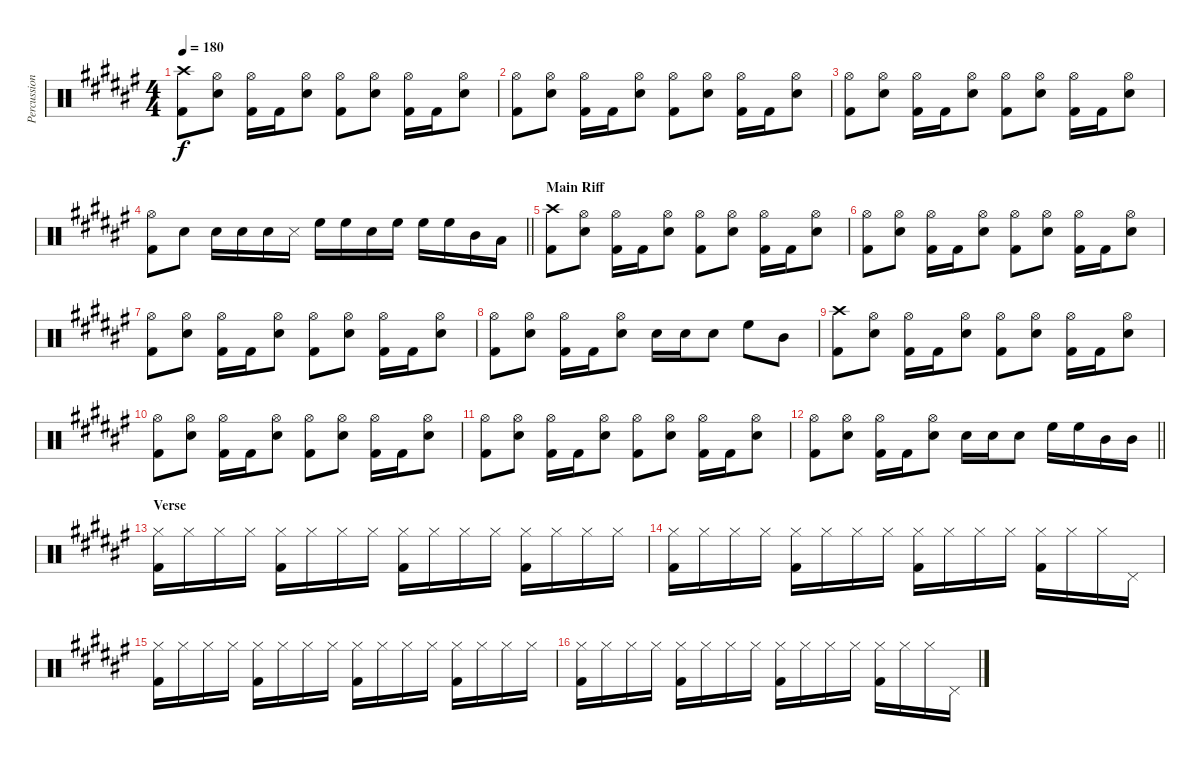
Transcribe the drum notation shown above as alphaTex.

\track ("Percussion" "Percussion") {instrument percussion}
\staff {score}
\articulation defaults
\ts (4 4)
\tempo 180
\clef neutral
\ks f#
("Crash high (hit)" "Kick (hit) 2").8{dy f} ("Hi-Hat (open)" "Snare (hit) 2").8 ("Hi-Hat (open)" "Kick (hit) 2").16 "Kick (hit) 2".16 ("Hi-Hat (open)" "Snare (hit) 2").8 ("Hi-Hat (open)" "Kick (hit) 2").8 ("Hi-Hat (open)" "Snare (hit) 2").8 ("Hi-Hat (open)" "Kick (hit) 2").16 "Kick (hit) 2".16 ("Hi-Hat (open)" "Snare (hit) 2").8 |
("Hi-Hat (open)" "Kick (hit) 2").8 ("Hi-Hat (open)" "Snare (hit) 2").8 ("Hi-Hat (open)" "Kick (hit) 2").16 "Kick (hit) 2".16 ("Hi-Hat (open)" "Snare (hit) 2").8 ("Hi-Hat (open)" "Kick (hit) 2").8 ("Hi-Hat (open)" "Snare (hit) 2").8 ("Hi-Hat (open)" "Kick (hit) 2").16 "Kick (hit) 2".16 ("Hi-Hat (open)" "Snare (hit) 2").8 |
("Hi-Hat (open)" "Kick (hit) 2").8 ("Hi-Hat (open)" "Snare (hit) 2").8 ("Hi-Hat (open)" "Kick (hit) 2").16 "Kick (hit) 2".16 ("Hi-Hat (open)" "Snare (hit) 2").8 ("Hi-Hat (open)" "Kick (hit) 2").8 ("Hi-Hat (open)" "Snare (hit) 2").8 ("Hi-Hat (open)" "Kick (hit) 2").16 "Kick (hit) 2".16 ("Hi-Hat (open)" "Snare (hit) 2").8 |
\barLineRight lightlight
("Hi-Hat (open)" "Kick (hit) 2").8 "Snare (hit) 2".8 "Snare (hit) 2".16 "Snare (hit) 2".16 "Snare (hit) 2".16 "Snare (side stick) 3".16 "High Floor Tom (hit)".16 "High Floor Tom (hit)".16 "Snare (hit) 2".16 "High Floor Tom (hit)".16 "High Floor Tom (hit)".16 "High Floor Tom (hit)".16 "Mid Tom (hit)".16 "Low Floor Tom (hit)".16 |
\section ("" "Main Riff")
("Crash high (hit)" "Kick (hit) 2").8 ("Hi-Hat (open)" "Snare (hit) 2").8 ("Hi-Hat (open)" "Kick (hit) 2").16 "Kick (hit) 2".16 ("Hi-Hat (open)" "Snare (hit) 2").8 ("Hi-Hat (open)" "Kick (hit) 2").8 ("Hi-Hat (open)" "Snare (hit) 2").8 ("Hi-Hat (open)" "Kick (hit) 2").16 "Kick (hit) 2".16 ("Hi-Hat (open)" "Snare (hit) 2").8 |
("Hi-Hat (open)" "Kick (hit) 2").8 ("Hi-Hat (open)" "Snare (hit) 2").8 ("Hi-Hat (open)" "Kick (hit) 2").16 "Kick (hit) 2".16 ("Hi-Hat (open)" "Snare (hit) 2").8 ("Hi-Hat (open)" "Kick (hit) 2").8 ("Hi-Hat (open)" "Snare (hit) 2").8 ("Hi-Hat (open)" "Kick (hit) 2").16 "Kick (hit) 2".16 ("Hi-Hat (open)" "Snare (hit) 2").8 |
("Hi-Hat (open)" "Kick (hit) 2").8 ("Hi-Hat (open)" "Snare (hit) 2").8 ("Hi-Hat (open)" "Kick (hit) 2").16 "Kick (hit) 2".16 ("Hi-Hat (open)" "Snare (hit) 2").8 ("Hi-Hat (open)" "Kick (hit) 2").8 ("Hi-Hat (open)" "Snare (hit) 2").8 ("Hi-Hat (open)" "Kick (hit) 2").16 "Kick (hit) 2".16 ("Hi-Hat (open)" "Snare (hit) 2").8 |
("Hi-Hat (open)" "Kick (hit) 2").8 ("Hi-Hat (open)" "Snare (hit) 2").8 ("Hi-Hat (open)" "Kick (hit) 2").16 "Kick (hit) 2".16 ("Hi-Hat (open)" "Snare (hit) 2").8 "Snare (hit) 2".16 "Snare (hit) 2".16 "Snare (hit) 2".8 "High Floor Tom (hit)".8 "Mid Tom (hit)".8 |
("Crash high (hit)" "Kick (hit) 2").8 ("Hi-Hat (open)" "Snare (hit) 2").8 ("Hi-Hat (open)" "Kick (hit) 2").16 "Kick (hit) 2".16 ("Hi-Hat (open)" "Snare (hit) 2").8 ("Hi-Hat (open)" "Kick (hit) 2").8 ("Hi-Hat (open)" "Snare (hit) 2").8 ("Hi-Hat (open)" "Kick (hit) 2").16 "Kick (hit) 2".16 ("Hi-Hat (open)" "Snare (hit) 2").8 |
("Hi-Hat (open)" "Kick (hit) 2").8 ("Hi-Hat (open)" "Snare (hit) 2").8 ("Hi-Hat (open)" "Kick (hit) 2").16 "Kick (hit) 2".16 ("Hi-Hat (open)" "Snare (hit) 2").8 ("Hi-Hat (open)" "Kick (hit) 2").8 ("Hi-Hat (open)" "Snare (hit) 2").8 ("Hi-Hat (open)" "Kick (hit) 2").16 "Kick (hit) 2".16 ("Hi-Hat (open)" "Snare (hit) 2").8 |
("Hi-Hat (open)" "Kick (hit) 2").8 ("Hi-Hat (open)" "Snare (hit) 2").8 ("Hi-Hat (open)" "Kick (hit) 2").16 "Kick (hit) 2".16 ("Hi-Hat (open)" "Snare (hit) 2").8 ("Hi-Hat (open)" "Kick (hit) 2").8 ("Hi-Hat (open)" "Snare (hit) 2").8 ("Hi-Hat (open)" "Kick (hit) 2").16 "Kick (hit) 2".16 ("Hi-Hat (open)" "Snare (hit) 2").8 |
\barLineRight lightlight
("Hi-Hat (open)" "Kick (hit) 2").8 ("Hi-Hat (open)" "Snare (hit) 2").8 ("Hi-Hat (open)" "Kick (hit) 2").16 "Kick (hit) 2".16 ("Hi-Hat (open)" "Snare (hit) 2").8 "Snare (hit) 2".16 "Snare (hit) 2".16 "Snare (hit) 2".8 "High Floor Tom (hit)".16 "High Floor Tom (hit)".16 "Mid Tom (hit)".16 "Mid Tom (hit)".16 |
\section ("" "Verse")
("Hi-Hat (closed)" "Kick (hit) 2").16 "Hi-Hat (closed)".16 "Hi-Hat (closed)".16 "Hi-Hat (closed)".16 ("Hi-Hat (closed)" "Kick (hit) 2").16 "Hi-Hat (closed)".16 "Hi-Hat (closed)".16 "Hi-Hat (closed)".16 ("Hi-Hat (closed)" "Kick (hit) 2").16 "Hi-Hat (closed)".16 "Hi-Hat (closed)".16 "Hi-Hat (closed)".16 ("Hi-Hat (closed)" "Kick (hit) 2").16 "Hi-Hat (closed)".16 "Hi-Hat (closed)".16 "Hi-Hat (closed)".16 |
("Hi-Hat (closed)" "Kick (hit) 2").16 "Hi-Hat (closed)".16 "Hi-Hat (closed)".16 "Hi-Hat (closed)".16 ("Hi-Hat (closed)" "Kick (hit) 2").16 "Hi-Hat (closed)".16 "Hi-Hat (closed)".16 "Hi-Hat (closed)".16 ("Hi-Hat (closed)" "Kick (hit) 2").16 "Hi-Hat (closed)".16 "Hi-Hat (closed)".16 "Hi-Hat (closed)".16 ("Hi-Hat (closed)" "Kick (hit) 2").16 "Hi-Hat (closed)".16 "Hi-Hat (closed)".16 "Pedal Hi-Hat (hit)".16 |
("Hi-Hat (closed)" "Kick (hit) 2").16 "Hi-Hat (closed)".16 "Hi-Hat (closed)".16 "Hi-Hat (closed)".16 ("Hi-Hat (closed)" "Kick (hit) 2").16 "Hi-Hat (closed)".16 "Hi-Hat (closed)".16 "Hi-Hat (closed)".16 ("Hi-Hat (closed)" "Kick (hit) 2").16 "Hi-Hat (closed)".16 "Hi-Hat (closed)".16 "Hi-Hat (closed)".16 ("Hi-Hat (closed)" "Kick (hit) 2").16 "Hi-Hat (closed)".16 "Hi-Hat (closed)".16 "Hi-Hat (closed)".16 |
("Hi-Hat (closed)" "Kick (hit) 2").16 "Hi-Hat (closed)".16 "Hi-Hat (closed)".16 "Hi-Hat (closed)".16 ("Hi-Hat (closed)" "Kick (hit) 2").16 "Hi-Hat (closed)".16 "Hi-Hat (closed)".16 "Hi-Hat (closed)".16 ("Hi-Hat (closed)" "Kick (hit) 2").16 "Hi-Hat (closed)".16 "Hi-Hat (closed)".16 "Hi-Hat (closed)".16 ("Hi-Hat (closed)" "Kick (hit) 2").16 "Hi-Hat (closed)".16 "Hi-Hat (closed)".16 "Pedal Hi-Hat (hit)".16
